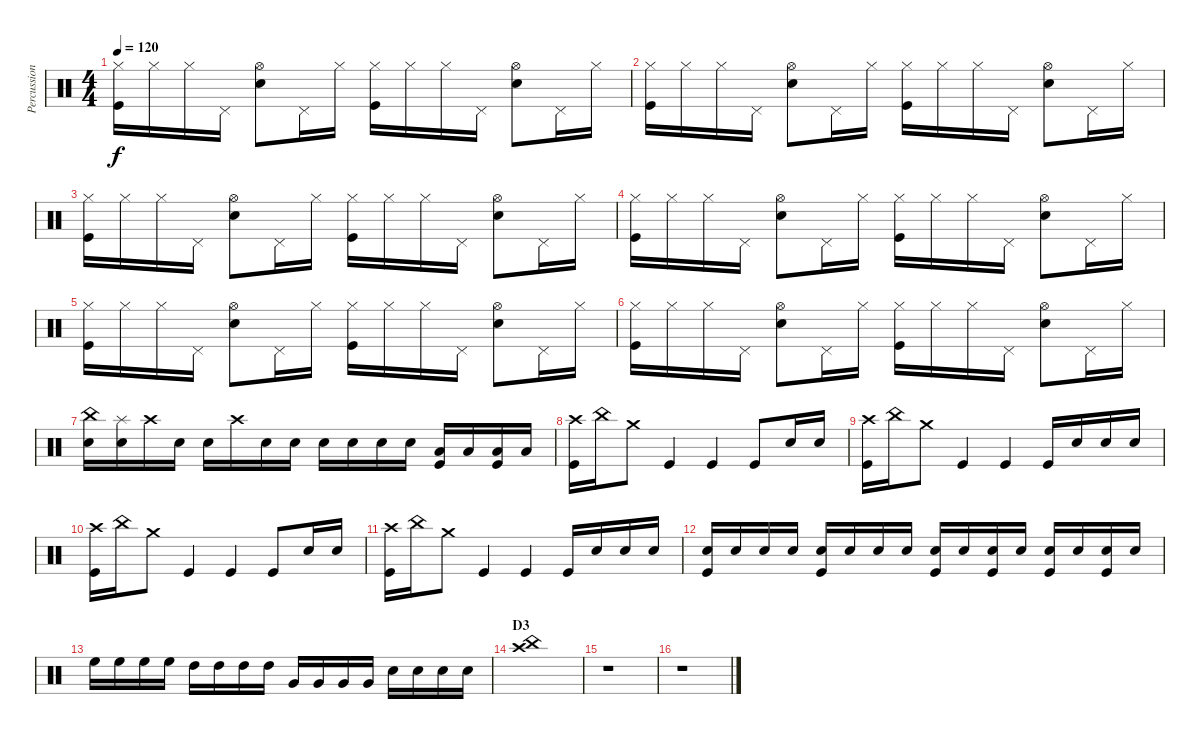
\track ("Percussions" "Percussion") {instrument percussion}
\staff {score}
\articulation defaults
\ts (4 4)
\tempo 120
\clef neutral
\ks c
("Hi-Hat (closed)" "Kick (hit)").16{dy f} "Hi-Hat (closed)".16 "Hi-Hat (closed)".16 "Pedal Hi-Hat (hit)".16 ("Hi-Hat (open)" "Snare (hit) 2").8 "Pedal Hi-Hat (hit)".16 "Hi-Hat (closed)".16 ("Hi-Hat (closed)" "Kick (hit)").16 "Hi-Hat (closed)".16 "Hi-Hat (closed)".16 "Pedal Hi-Hat (hit)".16 ("Hi-Hat (open)" "Snare (hit) 2").8 "Pedal Hi-Hat (hit)".16 "Hi-Hat (closed)".16 |
("Hi-Hat (closed)" "Kick (hit)").16 "Hi-Hat (closed)".16 "Hi-Hat (closed)".16 "Pedal Hi-Hat (hit)".16 ("Hi-Hat (open)" "Snare (hit) 2").8 "Pedal Hi-Hat (hit)".16 "Hi-Hat (closed)".16 ("Hi-Hat (closed)" "Kick (hit)").16 "Hi-Hat (closed)".16 "Hi-Hat (closed)".16 "Pedal Hi-Hat (hit)".16 ("Hi-Hat (open)" "Snare (hit) 2").8 "Pedal Hi-Hat (hit)".16 "Hi-Hat (closed)".16 |
("Hi-Hat (closed)" "Kick (hit)").16 "Hi-Hat (closed)".16 "Hi-Hat (closed)".16 "Pedal Hi-Hat (hit)".16 ("Hi-Hat (open)" "Snare (hit) 2").8 "Pedal Hi-Hat (hit)".16 "Hi-Hat (closed)".16 ("Hi-Hat (closed)" "Kick (hit)").16 "Hi-Hat (closed)".16 "Hi-Hat (closed)".16 "Pedal Hi-Hat (hit)".16 ("Hi-Hat (open)" "Snare (hit) 2").8 "Pedal Hi-Hat (hit)".16 "Hi-Hat (closed)".16 |
("Hi-Hat (closed)" "Kick (hit)").16 "Hi-Hat (closed)".16 "Hi-Hat (closed)".16 "Pedal Hi-Hat (hit)".16 ("Hi-Hat (open)" "Snare (hit) 2").8 "Pedal Hi-Hat (hit)".16 "Hi-Hat (closed)".16 ("Hi-Hat (closed)" "Kick (hit)").16 "Hi-Hat (closed)".16 "Hi-Hat (closed)".16 "Pedal Hi-Hat (hit)".16 ("Hi-Hat (open)" "Snare (hit) 2").8 "Pedal Hi-Hat (hit)".16 "Hi-Hat (closed)".16 |
("Hi-Hat (closed)" "Kick (hit)").16 "Hi-Hat (closed)".16 "Hi-Hat (closed)".16 "Pedal Hi-Hat (hit)".16 ("Hi-Hat (open)" "Snare (hit) 2").8 "Pedal Hi-Hat (hit)".16 "Hi-Hat (closed)".16 ("Hi-Hat (closed)" "Kick (hit)").16 "Hi-Hat (closed)".16 "Hi-Hat (closed)".16 "Pedal Hi-Hat (hit)".16 ("Hi-Hat (open)" "Snare (hit) 2").8 "Pedal Hi-Hat (hit)".16 "Hi-Hat (closed)".16 |
("Hi-Hat (closed)" "Kick (hit)").16 "Hi-Hat (closed)".16 "Hi-Hat (closed)".16 "Pedal Hi-Hat (hit)".16 ("Hi-Hat (open)" "Snare (hit) 2").8 "Pedal Hi-Hat (hit)".16 "Hi-Hat (closed)".16 ("Hi-Hat (closed)" "Kick (hit)").16 "Hi-Hat (closed)".16 "Hi-Hat (closed)".16 "Pedal Hi-Hat (hit)".16 ("Hi-Hat (open)" "Snare (hit) 2").8 "Pedal Hi-Hat (hit)".16 "Hi-Hat (closed)".16 |
("Snare (hit) 2" "China (hit)").16 ("Snare (hit) 2" "Splash (hit)").16 "Crash high (hit)".16 "Snare (hit) 2".16 "Snare (hit) 2".16 "Crash high (hit)".16 "Snare (hit) 2".16 "Snare (hit) 2".16 "Snare (hit) 2".16 "Snare (hit) 2".16 "Snare (hit) 2".16 "Snare (hit) 2".16 ("Low Floor Tom (hit)" "Kick (hit)").16 "Low Floor Tom (hit)".16 ("Low Floor Tom (hit)" "Kick (hit)").16 "Low Floor Tom (hit)".16 |
("Crash high (hit)" "Kick (hit)").16 "China (hit)".16 "Crash medium (hit)".8 "Kick (hit)".4 "Kick (hit)".4 "Kick (hit)".8 "Snare (hit) 2".16 "Snare (hit) 2".16 |
("Crash high (hit)" "Kick (hit)").16 "China (hit)".16 "Crash medium (hit)".8 "Kick (hit)".4 "Kick (hit)".4 "Kick (hit)".16 "Snare (hit) 2".16 "Snare (hit) 2".16 "Snare (hit) 2".16 |
("Crash high (hit)" "Kick (hit)").16 "China (hit)".16 "Crash medium (hit)".8 "Kick (hit)".4 "Kick (hit)".4 "Kick (hit)".8 "Snare (hit) 2".16 "Snare (hit) 2".16 |
("Crash high (hit)" "Kick (hit)").16 "China (hit)".16 "Crash medium (hit)".8 "Kick (hit)".4 "Kick (hit)".4 "Kick (hit)".16 "Snare (hit) 2".16 "Snare (hit) 2".16 "Snare (hit) 2".16 |
("Snare (hit) 2" "Kick (hit)").16 "Snare (hit) 2".16 "Snare (hit) 2".16 "Snare (hit) 2".16 ("Snare (hit) 2" "Kick (hit)").16 "Snare (hit) 2".16 "Snare (hit) 2".16 "Snare (hit) 2".16 ("Snare (hit) 2" "Kick (hit)").16 "Snare (hit) 2".16 ("Snare (hit) 2" "Kick (hit)").16 "Snare (hit) 2".16 ("Snare (hit) 2" "Kick (hit)").16 "Snare (hit) 2".16 ("Snare (hit) 2" "Kick (hit)").16 "Snare (hit) 2".16 |
"High Floor Tom (hit)".16 "High Floor Tom (hit)".16 "High Floor Tom (hit)".16 "High Floor Tom (hit)".16 "High Tom (hit)".16 "High Tom (hit)".16 "High Tom (hit)".16 "High Tom (hit)".16 "Very Low Tom (hit)".16 "Very Low Tom (hit)".16 "Very Low Tom (hit)".16 "Very Low Tom (hit)".16 "Snare (hit) 2".16 "Snare (hit) 2".16 "Snare (hit) 2".16 "Snare (hit) 2".16 |
\section ("" "D3")
("China (hit)" "Crash high (hit)").1 |
r.1 |
r.1
